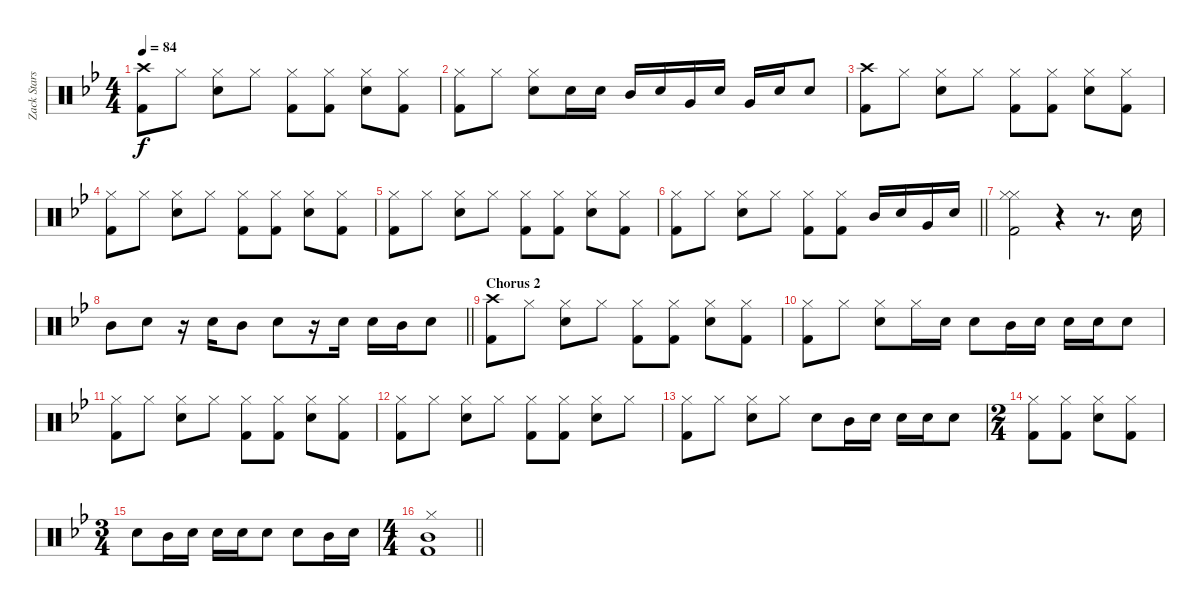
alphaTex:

\track ("Zack Starskey" "Zack Stars") {instrument percussion}
\staff {score}
\articulation defaults
\ts (4 4)
\tempo 84
\clef neutral
\ks bb
("Crash high (hit)" "Kick (hit) 2").8{dy f} "Hi-Hat (closed)".8 ("Hi-Hat (closed)" "Snare (hit) 2").8 "Hi-Hat (closed)".8 ("Hi-Hat (closed)" "Kick (hit) 2").8 ("Hi-Hat (closed)" "Kick (hit) 2").8 ("Hi-Hat (closed)" "Snare (hit) 2").8 ("Hi-Hat (closed)" "Kick (hit) 2").8 |
("Hi-Hat (closed)" "Kick (hit) 2").8 "Hi-Hat (closed)".8 ("Hi-Hat (closed)" "Snare (hit) 2").8 "Snare (hit) 2".16 "Snare (hit) 2".16 "Mid Tom (hit)".16 "Snare (hit) 2".16 "Very Low Tom (hit)".16 "Snare (hit) 2".16 "Very Low Tom (hit)".16 "Snare (hit) 2".16 "Snare (hit) 2".8 |
("Crash high (hit)" "Kick (hit) 2").8 "Hi-Hat (closed)".8 ("Hi-Hat (closed)" "Snare (hit) 2").8 "Hi-Hat (closed)".8 ("Hi-Hat (closed)" "Kick (hit) 2").8 ("Hi-Hat (closed)" "Kick (hit) 2").8 ("Hi-Hat (closed)" "Snare (hit) 2").8 ("Hi-Hat (closed)" "Kick (hit) 2").8 |
("Hi-Hat (closed)" "Kick (hit) 2").8 "Hi-Hat (closed)".8 ("Hi-Hat (closed)" "Snare (hit) 2").8 "Hi-Hat (closed)".8 ("Hi-Hat (closed)" "Kick (hit) 2").8 ("Hi-Hat (closed)" "Kick (hit) 2").8 ("Hi-Hat (closed)" "Snare (hit) 2").8 ("Hi-Hat (closed)" "Kick (hit) 2").8 |
("Hi-Hat (closed)" "Kick (hit) 2").8 "Hi-Hat (closed)".8 ("Hi-Hat (closed)" "Snare (hit) 2").8 "Hi-Hat (closed)".8 ("Hi-Hat (closed)" "Kick (hit) 2").8 ("Hi-Hat (closed)" "Kick (hit) 2").8 ("Hi-Hat (closed)" "Snare (hit) 2").8 ("Hi-Hat (closed)" "Kick (hit) 2").8 |
\barLineRight lightlight
("Hi-Hat (closed)" "Kick (hit) 2").8 "Hi-Hat (closed)".8 ("Hi-Hat (closed)" "Snare (hit) 2").8 "Hi-Hat (closed)".8 ("Hi-Hat (closed)" "Kick (hit) 2").8 ("Hi-Hat (closed)" "Kick (hit) 2").8 "Mid Tom (hit)".16 "Snare (hit) 2".16 "Very Low Tom (hit)".16 "Snare (hit) 2".16 |
("Hi-Hat (closed)" "Hi-Hat (closed)" "Kick (hit) 2").2 r.4 r.8{d} "Snare (hit) 2".16 |
\barLineRight lightlight "Mid Tom (hit)".8 "Snare (hit) 2".8
r.16 "Snare (hit) 2".16 "Mid Tom (hit)".8 "Snare (hit) 2".8 r.16 "Snare (hit) 2".16 "Snare (hit) 2".16 "Mid Tom (hit)".16 "Snare (hit) 2".8 |
\section ("" "Chorus 2")
("Crash high (hit)" "Kick (hit) 2").8 "Hi-Hat (closed)".8 ("Hi-Hat (closed)" "Snare (hit) 2").8 "Hi-Hat (closed)".8 ("Hi-Hat (closed)" "Kick (hit) 2").8 ("Hi-Hat (closed)" "Kick (hit) 2").8 ("Hi-Hat (closed)" "Snare (hit) 2").8 ("Hi-Hat (closed)" "Kick (hit) 2").8 |
("Hi-Hat (closed)" "Kick (hit) 2").8 "Hi-Hat (closed)".8 ("Hi-Hat (closed)" "Snare (hit) 2").8 "Hi-Hat (closed)".16 "Snare (hit) 2".16 "Snare (hit) 2".8 "Mid Tom (hit)".16 "Snare (hit) 2".16 "Snare (hit) 2".16 "Snare (hit) 2".16 "Snare (hit) 2".8 |
("Hi-Hat (closed)" "Kick (hit) 2").8 "Hi-Hat (closed)".8 ("Hi-Hat (closed)" "Snare (hit) 2").8 "Hi-Hat (closed)".8 ("Hi-Hat (closed)" "Kick (hit) 2").8 ("Hi-Hat (closed)" "Kick (hit) 2").8 ("Hi-Hat (closed)" "Snare (hit) 2").8 ("Hi-Hat (closed)" "Kick (hit) 2").8 |
("Hi-Hat (closed)" "Kick (hit) 2").8 "Hi-Hat (closed)".8 ("Hi-Hat (closed)" "Snare (hit) 2").8 "Hi-Hat (closed)".8 ("Hi-Hat (closed)" "Kick (hit) 2").8 ("Hi-Hat (closed)" "Kick (hit) 2").8 ("Hi-Hat (closed)" "Snare (hit) 2").8 "Hi-Hat (closed)".8 |
("Hi-Hat (closed)" "Kick (hit) 2").8 "Hi-Hat (closed)".8 ("Hi-Hat (closed)" "Snare (hit) 2").8 "Hi-Hat (closed)".8 "Snare (hit) 2".8 "Mid Tom (hit)".16 "Snare (hit) 2".16 "Snare (hit) 2".16 "Snare (hit) 2".16 "Snare (hit) 2".8 |
\ts (2 4)
("Hi-Hat (closed)" "Kick (hit) 2").8 ("Hi-Hat (closed)" "Kick (hit) 2").8 ("Hi-Hat (closed)" "Snare (hit) 2").8 ("Hi-Hat (closed)" "Kick (hit) 2").8 |
\ts (3 4)
"Snare (hit) 2".8 "Mid Tom (hit)".16 "Snare (hit) 2".16 "Snare (hit) 2".16 "Snare (hit) 2".16 "Snare (hit) 2".8 "Snare (hit) 2".8 "Mid Tom (hit)".16 "Snare (hit) 2".16 |
\ts (4 4)
\barLineRight lightlight
("Hi-Hat (closed)" "Mid Tom (hit)" "Kick (hit) 2").1
